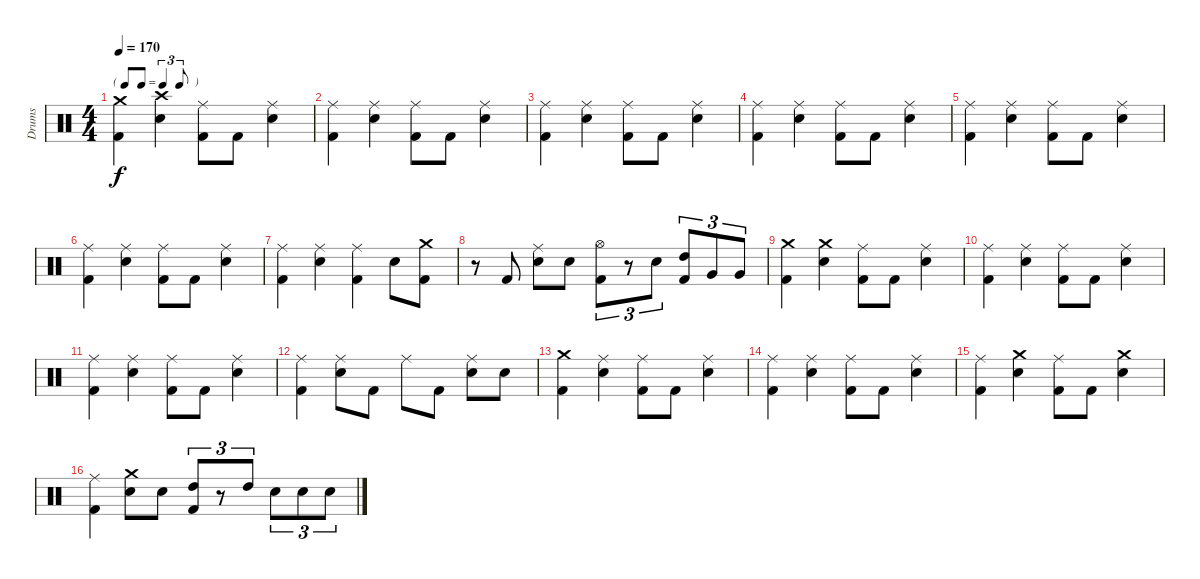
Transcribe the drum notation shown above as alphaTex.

\track ("Drums" "Drums") {instrument percussion}
\staff {score}
\articulation defaults
\ts (4 4)
\tf triplet8th
\tempo 170
\clef neutral
\ks c
("Crash medium (hit)" "Kick (hit) 2").4{dy f} ("Crash high (hit)" "Snare (hit) 2").4 ("Ride (middle)" "Kick (hit) 2").8 "Kick (hit) 2".8 ("Ride (middle)" "Snare (hit) 2").4 |
("Ride (middle)" "Kick (hit) 2").4 ("Ride (middle)" "Snare (hit) 2").4 ("Ride (middle)" "Kick (hit) 2").8 "Kick (hit) 2".8 ("Ride (middle)" "Snare (hit) 2").4 |
("Ride (middle)" "Kick (hit) 2").4 ("Ride (middle)" "Snare (hit) 2").4 ("Ride (middle)" "Kick (hit) 2").8 "Kick (hit) 2".8 ("Ride (middle)" "Snare (hit) 2").4 |
("Ride (middle)" "Kick (hit) 2").4 ("Ride (middle)" "Snare (hit) 2").4 ("Ride (middle)" "Kick (hit) 2").8 "Kick (hit) 2".8 ("Ride (middle)" "Snare (hit) 2").4 |
("Ride (middle)" "Kick (hit) 2").4 ("Ride (middle)" "Snare (hit) 2").4 ("Ride (middle)" "Kick (hit) 2").8 "Kick (hit) 2".8 ("Ride (middle)" "Snare (hit) 2").4 |
("Ride (middle)" "Kick (hit) 2").4 ("Ride (middle)" "Snare (hit) 2").4 ("Ride (middle)" "Kick (hit) 2").8 "Kick (hit) 2".8 ("Ride (middle)" "Snare (hit) 2").4 |
("Ride (middle)" "Kick (hit) 2").4 ("Ride (middle)" "Snare (hit) 2").4 ("Ride (middle)" "Kick (hit) 2").4 "Snare (hit) 2".8 ("Crash medium (hit)" "Kick (hit) 2").8 |
r.8 "Kick (hit) 2".8 ("Ride (middle)" "Snare (hit) 2").8 "Snare (hit) 2".8 ("Hi-Hat (open)" "Kick (hit) 2").8{tu (3 2)} r.8{tu (3 2)} "Snare (hit) 2".8{tu (3 2)} ("High Tom (hit)" "Kick (hit) 2").8{tu (3 2)} "Very Low Tom (hit)".8{tu (3 2)} "Very Low Tom (hit)".8{tu (3 2)} |
("Crash medium (hit)" "Kick (hit) 2").4 ("Crash medium (hit)" "Snare (hit) 2").4 ("Ride (middle)" "Kick (hit) 2").8 "Kick (hit) 2".8 ("Ride (middle)" "Snare (hit) 2").4 |
("Ride (middle)" "Kick (hit) 2").4 ("Ride (middle)" "Snare (hit) 2").4 ("Ride (middle)" "Kick (hit) 2").8 "Kick (hit) 2".8 ("Ride (middle)" "Snare (hit) 2").4 |
("Ride (middle)" "Kick (hit) 2").4 ("Ride (middle)" "Snare (hit) 2").4 ("Ride (middle)" "Kick (hit) 2").8 "Kick (hit) 2".8 ("Ride (middle)" "Snare (hit) 2").4 |
("Ride (middle)" "Kick (hit) 2").4 ("Ride (middle)" "Snare (hit) 2").8 "Kick (hit) 2".8 "Ride (middle)".8 "Kick (hit) 2".8 ("Ride (middle)" "Snare (hit) 2").8 "Snare (hit) 2".8 |
("Crash medium (hit)" "Kick (hit) 2").4 ("Ride (middle)" "Snare (hit) 2").4 ("Ride (middle)" "Kick (hit) 2").8 "Kick (hit) 2".8 ("Ride (middle)" "Snare (hit) 2").4 |
("Ride (middle)" "Kick (hit) 2").4 ("Ride (middle)" "Snare (hit) 2").4 ("Ride (middle)" "Kick (hit) 2").8 "Kick (hit) 2".8 ("Ride (middle)" "Snare (hit) 2").4 |
("Ride (middle)" "Kick (hit) 2").4 ("Crash medium (hit)" "Snare (hit) 2").4 ("Ride (middle)" "Kick (hit) 2").8 "Kick (hit) 2".8 ("Crash medium (hit)" "Snare (hit) 2").4 |
("Ride (middle)" "Kick (hit) 2").4 ("Crash medium (hit)" "Snare (hit) 2").8 "Snare (hit) 2".8 ("High Tom (hit)" "Kick (hit) 2").8{tu (3 2)} r.8{tu (3 2)} "High Tom (hit)".8{tu (3 2)} "Snare (hit) 2".8{tu (3 2)} "Snare (hit) 2".8{tu (3 2)} "Snare (hit) 2".8{tu (3 2)}
